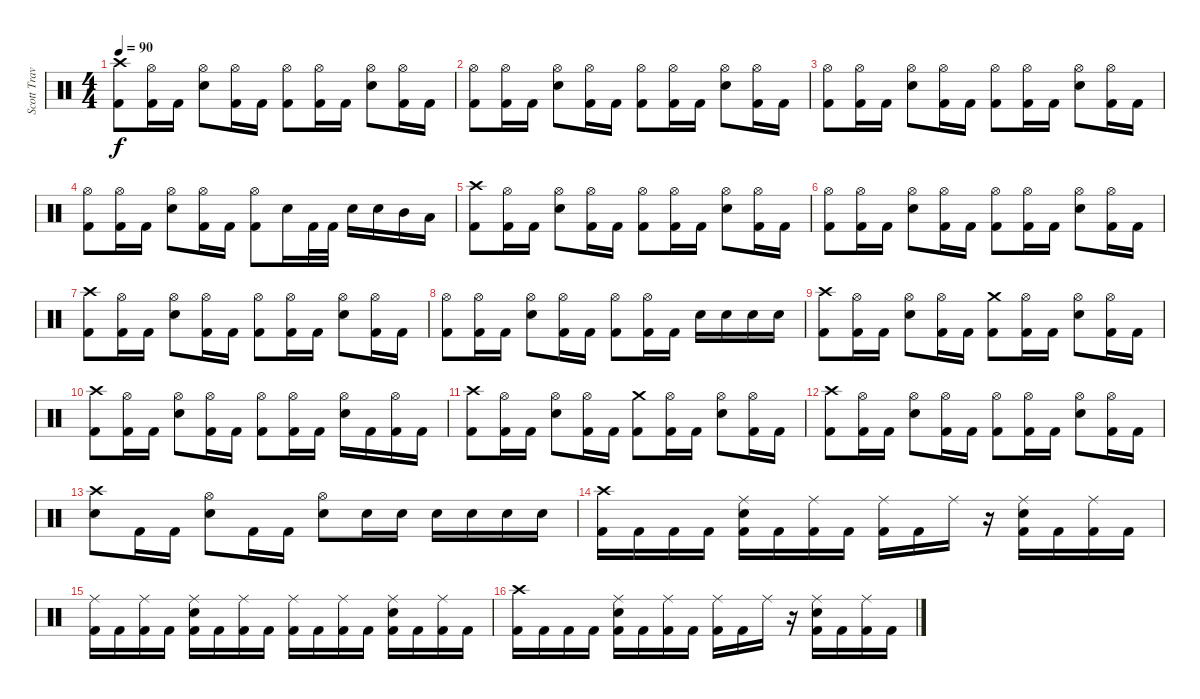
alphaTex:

\track ("Scott Travis" "Scott Trav") {instrument percussion}
\staff {score}
\articulation defaults
\ts (4 4)
\tempo 90
\clef neutral
\ks c
("Kick (hit) 2" "Crash high (hit)").8{dy f} ("Kick (hit) 2" "Hi-Hat (open)").16 "Kick (hit) 2".16 ("Electric Snare (hit)" "Hi-Hat (open)").8 ("Kick (hit) 2" "Hi-Hat (open)").16 "Kick (hit) 2".16 ("Kick (hit) 2" "Hi-Hat (open)").8 ("Kick (hit) 2" "Hi-Hat (open)").16 "Kick (hit) 2".16 ("Electric Snare (hit)" "Hi-Hat (open)").8 ("Kick (hit) 2" "Hi-Hat (open)").16 "Kick (hit) 2".16 |
("Kick (hit) 2" "Hi-Hat (open)").8 ("Kick (hit) 2" "Hi-Hat (open)").16 "Kick (hit) 2".16 ("Electric Snare (hit)" "Hi-Hat (open)").8 ("Kick (hit) 2" "Hi-Hat (open)").16 "Kick (hit) 2".16 ("Kick (hit) 2" "Hi-Hat (open)").8 ("Kick (hit) 2" "Hi-Hat (open)").16 "Kick (hit) 2".16 ("Electric Snare (hit)" "Hi-Hat (open)").8 ("Kick (hit) 2" "Hi-Hat (open)").16 "Kick (hit) 2".16 |
("Kick (hit) 2" "Hi-Hat (open)").8 ("Kick (hit) 2" "Hi-Hat (open)").16 "Kick (hit) 2".16 ("Electric Snare (hit)" "Hi-Hat (open)").8 ("Kick (hit) 2" "Hi-Hat (open)").16 "Kick (hit) 2".16 ("Kick (hit) 2" "Hi-Hat (open)").8 ("Kick (hit) 2" "Hi-Hat (open)").16 "Kick (hit) 2".16 ("Electric Snare (hit)" "Hi-Hat (open)").8 ("Kick (hit) 2" "Hi-Hat (open)").16 "Kick (hit) 2".16 |
("Kick (hit) 2" "Hi-Hat (open)").8 ("Kick (hit) 2" "Hi-Hat (open)").16 "Kick (hit) 2".16 ("Electric Snare (hit)" "Hi-Hat (open)").8 ("Kick (hit) 2" "Hi-Hat (open)").16 "Kick (hit) 2".16 ("Kick (hit) 2" "Hi-Hat (open)").8 "Electric Snare (hit)".16 "Kick (hit) 2".32 "Kick (hit) 2".32 "Electric Snare (hit)".16 "Electric Snare (hit)".16 "Mid Tom (hit)".16 "Low Tom (hit)".16 |
("Kick (hit) 2" "Crash high (hit)").8 ("Kick (hit) 2" "Hi-Hat (open)").16 "Kick (hit) 2".16 ("Electric Snare (hit)" "Hi-Hat (open)").8 ("Kick (hit) 2" "Hi-Hat (open)").16 "Kick (hit) 2".16 ("Kick (hit) 2" "Hi-Hat (open)").8 ("Kick (hit) 2" "Hi-Hat (open)").16 "Kick (hit) 2".16 ("Electric Snare (hit)" "Hi-Hat (open)").8 ("Kick (hit) 2" "Hi-Hat (open)").16 "Kick (hit) 2".16 |
("Kick (hit) 2" "Hi-Hat (open)").8 ("Kick (hit) 2" "Hi-Hat (open)").16 "Kick (hit) 2".16 ("Electric Snare (hit)" "Hi-Hat (open)").8 ("Kick (hit) 2" "Hi-Hat (open)").16 "Kick (hit) 2".16 ("Kick (hit) 2" "Hi-Hat (open)").8 ("Kick (hit) 2" "Hi-Hat (open)").16 "Kick (hit) 2".16 ("Electric Snare (hit)" "Hi-Hat (open)").8 ("Kick (hit) 2" "Hi-Hat (open)").16 "Kick (hit) 2".16 |
("Kick (hit) 2" "Crash high (hit)").8 ("Kick (hit) 2" "Hi-Hat (open)").16 "Kick (hit) 2".16 ("Electric Snare (hit)" "Hi-Hat (open)").8 ("Kick (hit) 2" "Hi-Hat (open)").16 "Kick (hit) 2".16 ("Kick (hit) 2" "Hi-Hat (open)").8 ("Kick (hit) 2" "Hi-Hat (open)").16 "Kick (hit) 2".16 ("Electric Snare (hit)" "Hi-Hat (open)").8 ("Kick (hit) 2" "Hi-Hat (open)").16 "Kick (hit) 2".16 |
("Kick (hit) 2" "Hi-Hat (open)").8 ("Kick (hit) 2" "Hi-Hat (open)").16 "Kick (hit) 2".16 ("Electric Snare (hit)" "Hi-Hat (open)").8 ("Kick (hit) 2" "Hi-Hat (open)").16 "Kick (hit) 2".16 ("Kick (hit) 2" "Hi-Hat (open)").8 ("Kick (hit) 2" "Hi-Hat (open)").16 "Kick (hit) 2".16 "Electric Snare (hit)".16 "Electric Snare (hit)".16 "Electric Snare (hit)".16 "Electric Snare (hit)".16 |
("Kick (hit) 2" "Crash high (hit)").8 ("Kick (hit) 2" "Hi-Hat (open)").16 "Kick (hit) 2".16 ("Electric Snare (hit)" "Hi-Hat (open)").8 ("Kick (hit) 2" "Hi-Hat (open)").16 "Kick (hit) 2".16 ("Kick (hit) 2" "Crash medium (hit)").8 ("Kick (hit) 2" "Hi-Hat (open)").16 "Kick (hit) 2".16 ("Electric Snare (hit)" "Hi-Hat (open)").8 ("Kick (hit) 2" "Hi-Hat (open)").16 "Kick (hit) 2".16 |
("Kick (hit) 2" "Crash high (hit)").8 ("Kick (hit) 2" "Hi-Hat (open)").16 "Kick (hit) 2".16 ("Electric Snare (hit)" "Hi-Hat (open)").8 ("Kick (hit) 2" "Hi-Hat (open)").16 "Kick (hit) 2".16 ("Kick (hit) 2" "Hi-Hat (open)").8 ("Kick (hit) 2" "Hi-Hat (open)").16 "Kick (hit) 2".16 ("Electric Snare (hit)" "Hi-Hat (open)").16 "Kick (hit) 2".16 ("Kick (hit) 2" "Hi-Hat (open)").16 "Kick (hit) 2".16 |
("Kick (hit) 2" "Crash high (hit)").8 ("Kick (hit) 2" "Hi-Hat (open)").16 "Kick (hit) 2".16 ("Electric Snare (hit)" "Hi-Hat (open)").8 ("Kick (hit) 2" "Hi-Hat (open)").16 "Kick (hit) 2".16 ("Kick (hit) 2" "Crash medium (hit)").8 ("Kick (hit) 2" "Hi-Hat (open)").16 "Kick (hit) 2".16 ("Electric Snare (hit)" "Hi-Hat (open)").8 ("Kick (hit) 2" "Hi-Hat (open)").16 "Kick (hit) 2".16 |
("Kick (hit) 2" "Crash high (hit)").8 ("Kick (hit) 2" "Hi-Hat (open)").16 "Kick (hit) 2".16 ("Electric Snare (hit)" "Hi-Hat (open)").8 ("Kick (hit) 2" "Hi-Hat (open)").16 "Kick (hit) 2".16 ("Kick (hit) 2" "Hi-Hat (open)").8 ("Kick (hit) 2" "Hi-Hat (open)").16 "Kick (hit) 2".16 ("Electric Snare (hit)" "Hi-Hat (open)").8 ("Kick (hit) 2" "Hi-Hat (open)").16 "Kick (hit) 2".16 |
("Electric Snare (hit)" "Crash high (hit)").8 "Kick (hit) 2".16 "Kick (hit) 2".16 ("Electric Snare (hit)" "Hi-Hat (open)").8 "Kick (hit) 2".16 "Kick (hit) 2".16 ("Electric Snare (hit)" "Hi-Hat (open)").8 "Electric Snare (hit)".16 "Electric Snare (hit)".16 "Electric Snare (hit)".16 "Electric Snare (hit)".16 "Electric Snare (hit)".16 "Electric Snare (hit)".16 |
("Kick (hit) 2" "Crash high (hit)").16 "Kick (hit) 2".16 "Kick (hit) 2".16 "Kick (hit) 2".16 ("Kick (hit) 2" "Ride (middle)" "Electric Snare (hit)").16 "Kick (hit) 2".16 ("Kick (hit) 2" "Ride (middle)").16 "Kick (hit) 2".16 ("Kick (hit) 2" "Ride (middle)").16 "Kick (hit) 2".16 "Ride (middle)".16 r.16 ("Kick (hit) 2" "Electric Snare (hit)" "Ride (middle)").16 "Kick (hit) 2".16 ("Kick (hit) 2" "Ride (middle)").16 "Kick (hit) 2".16 |
("Kick (hit) 2" "Ride (middle)").16 "Kick (hit) 2".16 ("Kick (hit) 2" "Ride (middle)").16 "Kick (hit) 2".16 ("Kick (hit) 2" "Ride (middle)" "Electric Snare (hit)").16 "Kick (hit) 2".16 ("Kick (hit) 2" "Ride (middle)").16 "Kick (hit) 2".16 ("Kick (hit) 2" "Ride (middle)").16 "Kick (hit) 2".16 ("Kick (hit) 2" "Ride (middle)").16 "Kick (hit) 2".16 ("Kick (hit) 2" "Ride (middle)" "Electric Snare (hit)").16 "Kick (hit) 2".16 ("Kick (hit) 2" "Ride (middle)").16 "Kick (hit) 2".16 |
("Kick (hit) 2" "Crash high (hit)").16 "Kick (hit) 2".16 "Kick (hit) 2".16 "Kick (hit) 2".16 ("Kick (hit) 2" "Ride (middle)" "Electric Snare (hit)").16 "Kick (hit) 2".16 ("Kick (hit) 2" "Ride (middle)").16 "Kick (hit) 2".16 ("Kick (hit) 2" "Ride (middle)").16 "Kick (hit) 2".16 "Ride (middle)".16 r.16 ("Kick (hit) 2" "Electric Snare (hit)" "Ride (middle)").16 "Kick (hit) 2".16 ("Kick (hit) 2" "Ride (middle)").16 "Kick (hit) 2".16
